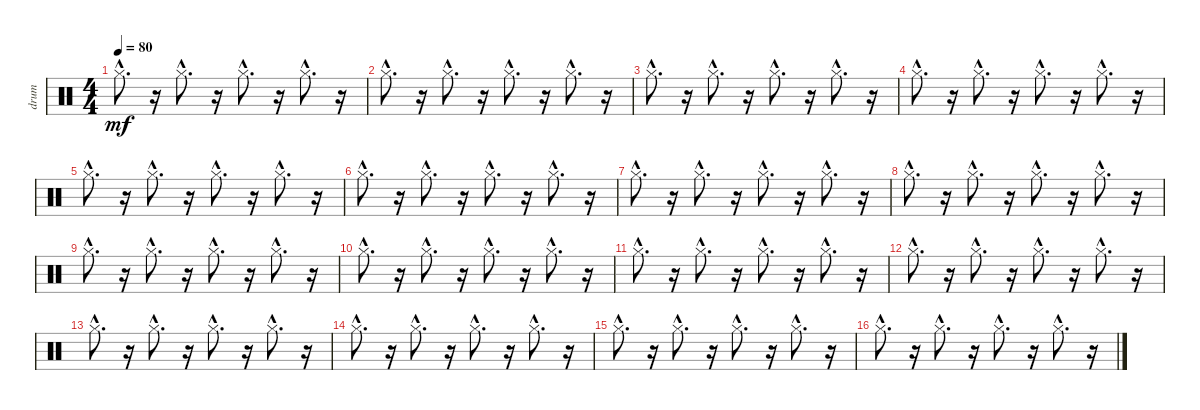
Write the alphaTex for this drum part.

\track ("drum" "drum") {instrument percussion}
\staff {score}
\articulation defaults
\ts (4 4)
\tempo 80
\clef neutral
\ks c "Hi-Hat (closed)"{hac}.8{d dy mf}
r.16 "Hi-Hat (closed)"{hac}.8{d} r.16 "Hi-Hat (closed)"{hac}.8{d} r.16 "Hi-Hat (closed)"{hac}.8{d} r.16 |
"Hi-Hat (closed)"{hac}.8{d} r.16 "Hi-Hat (closed)"{hac}.8{d} r.16 "Hi-Hat (closed)"{hac}.8{d} r.16 "Hi-Hat (closed)"{hac}.8{d} r.16 |
"Hi-Hat (closed)"{hac}.8{d} r.16 "Hi-Hat (closed)"{hac}.8{d} r.16 "Hi-Hat (closed)"{hac}.8{d} r.16 "Hi-Hat (closed)"{hac}.8{d} r.16 |
"Hi-Hat (closed)"{hac}.8{d} r.16 "Hi-Hat (closed)"{hac}.8{d} r.16 "Hi-Hat (closed)"{hac}.8{d} r.16 "Hi-Hat (closed)"{hac}.8{d} r.16 |
"Hi-Hat (closed)"{hac}.8{d} r.16 "Hi-Hat (closed)"{hac}.8{d} r.16 "Hi-Hat (closed)"{hac}.8{d} r.16 "Hi-Hat (closed)"{hac}.8{d} r.16 |
"Hi-Hat (closed)"{hac}.8{d} r.16 "Hi-Hat (closed)"{hac}.8{d} r.16 "Hi-Hat (closed)"{hac}.8{d} r.16 "Hi-Hat (closed)"{hac}.8{d} r.16 |
"Hi-Hat (closed)"{hac}.8{d} r.16 "Hi-Hat (closed)"{hac}.8{d} r.16 "Hi-Hat (closed)"{hac}.8{d} r.16 "Hi-Hat (closed)"{hac}.8{d} r.16 |
"Hi-Hat (closed)"{hac}.8{d} r.16 "Hi-Hat (closed)"{hac}.8{d} r.16 "Hi-Hat (closed)"{hac}.8{d} r.16 "Hi-Hat (closed)"{hac}.8{d} r.16 |
"Hi-Hat (closed)"{hac}.8{d} r.16 "Hi-Hat (closed)"{hac}.8{d} r.16 "Hi-Hat (closed)"{hac}.8{d} r.16 "Hi-Hat (closed)"{hac}.8{d} r.16 |
"Hi-Hat (closed)"{hac}.8{d} r.16 "Hi-Hat (closed)"{hac}.8{d} r.16 "Hi-Hat (closed)"{hac}.8{d} r.16 "Hi-Hat (closed)"{hac}.8{d} r.16 |
"Hi-Hat (closed)"{hac}.8{d} r.16 "Hi-Hat (closed)"{hac}.8{d} r.16 "Hi-Hat (closed)"{hac}.8{d} r.16 "Hi-Hat (closed)"{hac}.8{d} r.16 |
"Hi-Hat (closed)"{hac}.8{d} r.16 "Hi-Hat (closed)"{hac}.8{d} r.16 "Hi-Hat (closed)"{hac}.8{d} r.16 "Hi-Hat (closed)"{hac}.8{d} r.16 |
"Hi-Hat (closed)"{hac}.8{d} r.16 "Hi-Hat (closed)"{hac}.8{d} r.16 "Hi-Hat (closed)"{hac}.8{d} r.16 "Hi-Hat (closed)"{hac}.8{d} r.16 |
"Hi-Hat (closed)"{hac}.8{d} r.16 "Hi-Hat (closed)"{hac}.8{d} r.16 "Hi-Hat (closed)"{hac}.8{d} r.16 "Hi-Hat (closed)"{hac}.8{d} r.16 |
"Hi-Hat (closed)"{hac}.8{d} r.16 "Hi-Hat (closed)"{hac}.8{d} r.16 "Hi-Hat (closed)"{hac}.8{d} r.16 "Hi-Hat (closed)"{hac}.8{d} r.16 |
"Hi-Hat (closed)"{hac}.8{d} r.16 "Hi-Hat (closed)"{hac}.8{d} r.16 "Hi-Hat (closed)"{hac}.8{d} r.16 "Hi-Hat (closed)"{hac}.8{d} r.16
